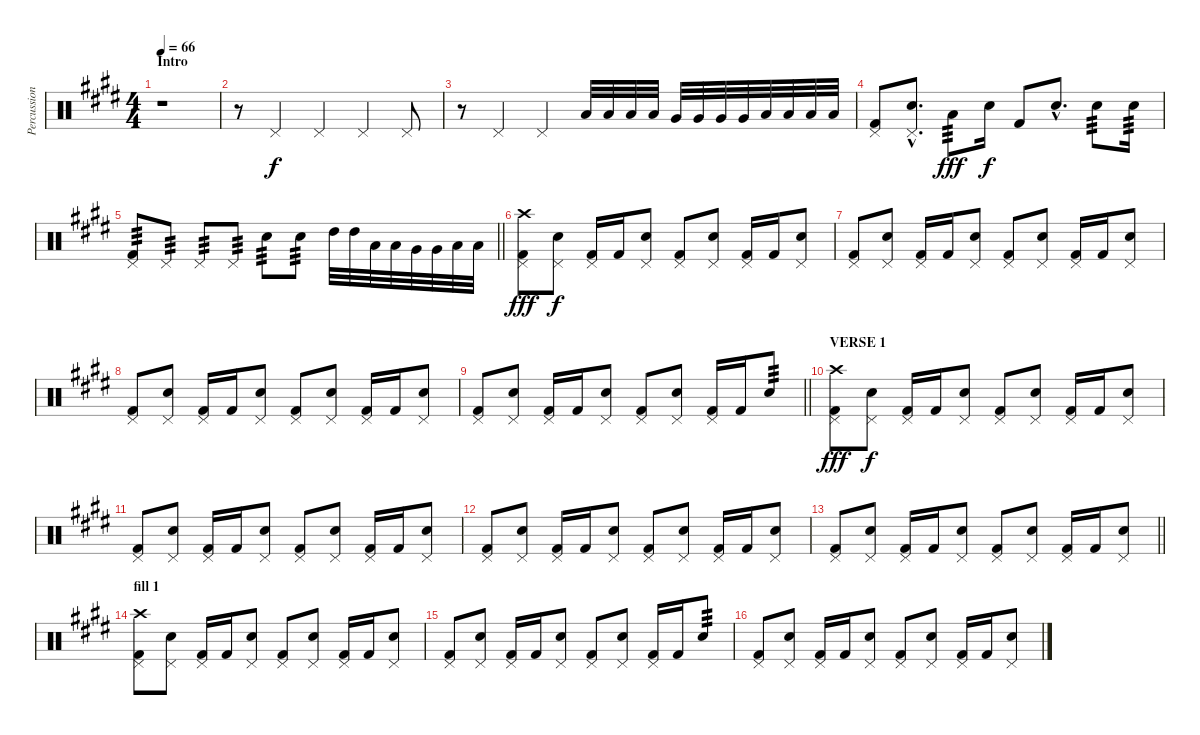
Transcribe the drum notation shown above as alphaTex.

\track ("Percussion" "Percussion") {instrument percussion}
\staff {score}
\articulation defaults
\ts (4 4)
\section ("" "Intro")
\tempo 66
\clef neutral
\ks e
r.1{dy f} |
r.8 "Pedal Hi-Hat (hit)".4 "Pedal Hi-Hat (hit)".4 "Pedal Hi-Hat (hit)".4 "Pedal Hi-Hat (hit)".8 |
r.8 "Pedal Hi-Hat (hit)".4 "Pedal Hi-Hat (hit)".4 "Low Tom (hit)".32{balance 0} "Low Tom (hit)".32{balance 2} "Low Tom (hit)".32{balance 4} "Low Tom (hit)".32{balance 6} "Very Low Tom (hit)".32{balance 8} "Very Low Tom (hit)".32{balance 10} "Very Low Tom (hit)".32{balance 12} "Very Low Tom (hit)".32{balance 14} "Low Floor Tom (hit)".32{balance 16} "Low Floor Tom (hit)".32 "Low Floor Tom (hit)".32 "Low Floor Tom (hit)".32 |
("Pedal Hi-Hat (hit)" "Kick (hit) 2").8 ("Pedal Hi-Hat (hit)"{hac} "Electric Snare (hit)"{hac}).8{d} "Low Floor Tom (hit)".8{tp 3 dy fff} "Electric Snare (hit)".16{dy f} "Kick (hit) 2".8 "Electric Snare (hit)"{hac}.8{d} "Electric Snare (hit)".8{tp 3} "Electric Snare (hit)".16{tp 3} |
\barLineRight lightlight
("Pedal Hi-Hat (hit)" "Kick (hit) 2").8{tp 3} "Pedal Hi-Hat (hit)".8{tp 3} "Pedal Hi-Hat (hit)".8{tp 3} "Pedal Hi-Hat (hit)".8{tp 3} "Electric Snare (hit)".8{tp 3} "Electric Snare (hit)".8{tp 3} "High Tom (hit)".32 "High Tom (hit)".32 "Low Tom (hit)".32 "Low Tom (hit)".32 "Very Low Tom (hit)".32 "Very Low Tom (hit)".32 "Low Floor Tom (hit)".32 "Low Floor Tom (hit)".32 |
("Crash high (hit)" "Pedal Hi-Hat (hit)" "Kick (hit) 2").8{dy fff balance 11} ("Pedal Hi-Hat (hit)" "Electric Snare (hit)").8{dy f} ("Pedal Hi-Hat (hit)" "Kick (hit) 2").16 "Kick (hit) 2".16 ("Pedal Hi-Hat (hit)" "Electric Snare (hit)").8 ("Pedal Hi-Hat (hit)" "Kick (hit) 2").8 ("Pedal Hi-Hat (hit)" "Electric Snare (hit)").8 ("Pedal Hi-Hat (hit)" "Kick (hit) 2").16 "Kick (hit) 2".16 ("Pedal Hi-Hat (hit)" "Electric Snare (hit)").8 |
("Pedal Hi-Hat (hit)" "Kick (hit) 2").8 ("Pedal Hi-Hat (hit)" "Electric Snare (hit)").8 ("Pedal Hi-Hat (hit)" "Kick (hit) 2").16 "Kick (hit) 2".16 ("Pedal Hi-Hat (hit)" "Electric Snare (hit)").8 ("Pedal Hi-Hat (hit)" "Kick (hit) 2").8 ("Pedal Hi-Hat (hit)" "Electric Snare (hit)").8 ("Pedal Hi-Hat (hit)" "Kick (hit) 2").16 "Kick (hit) 2".16 ("Pedal Hi-Hat (hit)" "Electric Snare (hit)").8 |
("Pedal Hi-Hat (hit)" "Kick (hit) 2").8 ("Pedal Hi-Hat (hit)" "Electric Snare (hit)").8 ("Pedal Hi-Hat (hit)" "Kick (hit) 2").16 "Kick (hit) 2".16 ("Pedal Hi-Hat (hit)" "Electric Snare (hit)").8 ("Pedal Hi-Hat (hit)" "Kick (hit) 2").8 ("Pedal Hi-Hat (hit)" "Electric Snare (hit)").8 ("Pedal Hi-Hat (hit)" "Kick (hit) 2").16 "Kick (hit) 2".16 ("Pedal Hi-Hat (hit)" "Electric Snare (hit)").8 |
\barLineRight lightlight
("Pedal Hi-Hat (hit)" "Kick (hit) 2").8 ("Pedal Hi-Hat (hit)" "Electric Snare (hit)").8 ("Pedal Hi-Hat (hit)" "Kick (hit) 2").16 "Kick (hit) 2".16 ("Pedal Hi-Hat (hit)" "Electric Snare (hit)").8 ("Pedal Hi-Hat (hit)" "Kick (hit) 2").8 ("Pedal Hi-Hat (hit)" "Electric Snare (hit)").8 ("Pedal Hi-Hat (hit)" "Kick (hit) 2").16 "Kick (hit) 2".16 "Electric Snare (hit)".8{tp 3} |
\section ("" "VERSE 1")
("Crash high (hit)" "Pedal Hi-Hat (hit)" "Kick (hit) 2").8{dy fff} ("Pedal Hi-Hat (hit)" "Electric Snare (hit)").8{dy f} ("Pedal Hi-Hat (hit)" "Kick (hit) 2").16 "Kick (hit) 2".16 ("Pedal Hi-Hat (hit)" "Electric Snare (hit)").8 ("Pedal Hi-Hat (hit)" "Kick (hit) 2").8 ("Pedal Hi-Hat (hit)" "Electric Snare (hit)").8 ("Pedal Hi-Hat (hit)" "Kick (hit) 2").16 "Kick (hit) 2".16 ("Pedal Hi-Hat (hit)" "Electric Snare (hit)").8 |
("Pedal Hi-Hat (hit)" "Kick (hit) 2").8 ("Pedal Hi-Hat (hit)" "Electric Snare (hit)").8 ("Pedal Hi-Hat (hit)" "Kick (hit) 2").16 "Kick (hit) 2".16 ("Pedal Hi-Hat (hit)" "Electric Snare (hit)").8 ("Pedal Hi-Hat (hit)" "Kick (hit) 2").8 ("Pedal Hi-Hat (hit)" "Electric Snare (hit)").8 ("Pedal Hi-Hat (hit)" "Kick (hit) 2").16 "Kick (hit) 2".16 ("Pedal Hi-Hat (hit)" "Electric Snare (hit)").8 |
("Pedal Hi-Hat (hit)" "Kick (hit) 2").8 ("Pedal Hi-Hat (hit)" "Electric Snare (hit)").8 ("Pedal Hi-Hat (hit)" "Kick (hit) 2").16 "Kick (hit) 2".16 ("Pedal Hi-Hat (hit)" "Electric Snare (hit)").8 ("Pedal Hi-Hat (hit)" "Kick (hit) 2").8 ("Pedal Hi-Hat (hit)" "Electric Snare (hit)").8 ("Pedal Hi-Hat (hit)" "Kick (hit) 2").16 "Kick (hit) 2".16 ("Pedal Hi-Hat (hit)" "Electric Snare (hit)").8 |
\barLineRight lightlight
("Pedal Hi-Hat (hit)" "Kick (hit) 2").8 ("Pedal Hi-Hat (hit)" "Electric Snare (hit)").8 ("Pedal Hi-Hat (hit)" "Kick (hit) 2").16 "Kick (hit) 2".16 ("Pedal Hi-Hat (hit)" "Electric Snare (hit)").8 ("Pedal Hi-Hat (hit)" "Kick (hit) 2").8 ("Pedal Hi-Hat (hit)" "Electric Snare (hit)").8 ("Pedal Hi-Hat (hit)" "Kick (hit) 2").16 "Kick (hit) 2".16 ("Pedal Hi-Hat (hit)" "Electric Snare (hit)").8 |
\section ("" "fill 1")
("Crash high (hit)" "Pedal Hi-Hat (hit)" "Kick (hit) 2").8 ("Pedal Hi-Hat (hit)" "Electric Snare (hit)").8 ("Pedal Hi-Hat (hit)" "Kick (hit) 2").16 "Kick (hit) 2".16 ("Pedal Hi-Hat (hit)" "Electric Snare (hit)").8 ("Pedal Hi-Hat (hit)" "Kick (hit) 2").8 ("Pedal Hi-Hat (hit)" "Electric Snare (hit)").8 ("Pedal Hi-Hat (hit)" "Kick (hit) 2").16 "Kick (hit) 2".16 ("Pedal Hi-Hat (hit)" "Electric Snare (hit)").8 |
("Pedal Hi-Hat (hit)" "Kick (hit) 2").8 ("Pedal Hi-Hat (hit)" "Electric Snare (hit)").8 ("Pedal Hi-Hat (hit)" "Kick (hit) 2").16 "Kick (hit) 2".16 ("Pedal Hi-Hat (hit)" "Electric Snare (hit)").8 ("Pedal Hi-Hat (hit)" "Kick (hit) 2").8 ("Pedal Hi-Hat (hit)" "Electric Snare (hit)").8 ("Pedal Hi-Hat (hit)" "Kick (hit) 2").16 "Kick (hit) 2".16 "Electric Snare (hit)".8{tp 3} |
("Pedal Hi-Hat (hit)" "Kick (hit) 2").8 ("Pedal Hi-Hat (hit)" "Electric Snare (hit)").8 ("Pedal Hi-Hat (hit)" "Kick (hit) 2").16 "Kick (hit) 2".16 ("Pedal Hi-Hat (hit)" "Electric Snare (hit)").8 ("Pedal Hi-Hat (hit)" "Kick (hit) 2").8 ("Pedal Hi-Hat (hit)" "Electric Snare (hit)").8 ("Pedal Hi-Hat (hit)" "Kick (hit) 2").16 "Kick (hit) 2".16 ("Pedal Hi-Hat (hit)" "Electric Snare (hit)").8
